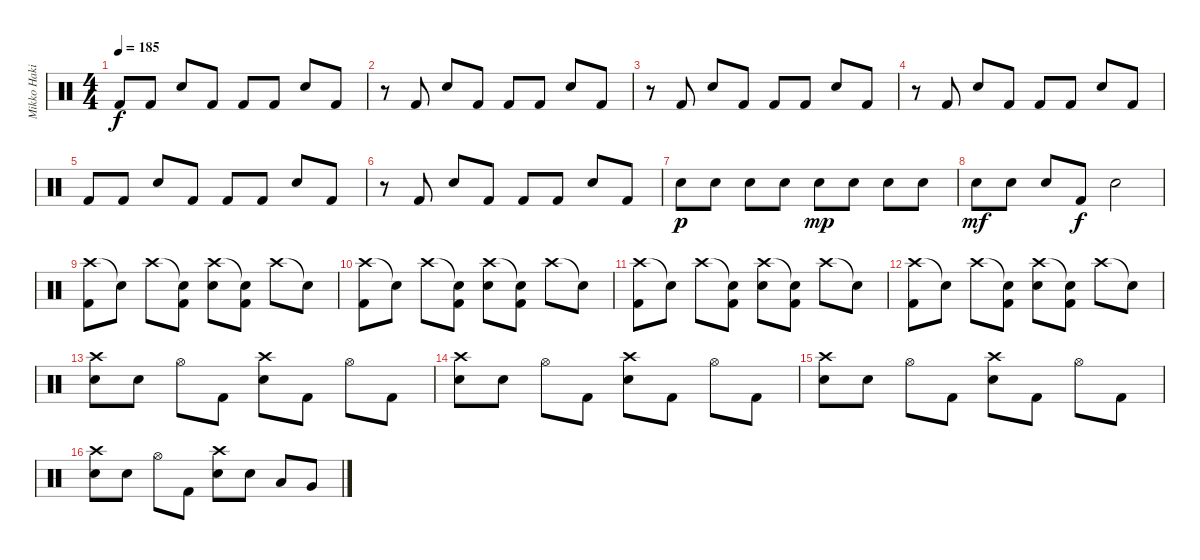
\track ("Mikko Hakila" "Mikko Haki") {instrument percussion}
\staff {score}
\articulation defaults
\ts (4 4)
\tempo 185
\clef neutral
\ks c "Kick (hit) 2".8{dy f} "Kick (hit) 2".8 "Snare (hit) 2".8 "Kick (hit) 2".8 "Kick (hit) 2".8 "Kick (hit) 2".8 "Snare (hit) 2".8 "Kick (hit) 2".8
|
r.8 "Kick (hit) 2".8 "Snare (hit) 2".8 "Kick (hit) 2".8 "Kick (hit) 2".8 "Kick (hit) 2".8 "Snare (hit) 2".8 "Kick (hit) 2".8 |
r.8 "Kick (hit) 2".8 "Snare (hit) 2".8 "Kick (hit) 2".8 "Kick (hit) 2".8 "Kick (hit) 2".8 "Snare (hit) 2".8 "Kick (hit) 2".8 |
r.8 "Kick (hit) 2".8 "Snare (hit) 2".8 "Kick (hit) 2".8 "Kick (hit) 2".8 "Kick (hit) 2".8 "Snare (hit) 2".8 "Kick (hit) 2".8 |
"Kick (hit) 2".8 "Kick (hit) 2".8 "Snare (hit) 2".8 "Kick (hit) 2".8 "Kick (hit) 2".8 "Kick (hit) 2".8 "Snare (hit) 2".8 "Kick (hit) 2".8 |
r.8 "Kick (hit) 2".8 "Snare (hit) 2".8 "Kick (hit) 2".8 "Kick (hit) 2".8 "Kick (hit) 2".8 "Snare (hit) 2".8 "Kick (hit) 2".8 |
"Snare (hit) 2".8{dy p} "Snare (hit) 2".8 "Snare (hit) 2".8 "Snare (hit) 2".8 "Snare (hit) 2".8{dy mp} "Snare (hit) 2".8 "Snare (hit) 2".8 "Snare (hit) 2".8 |
"Snare (hit) 2".8{dy mf} "Snare (hit) 2".8 "Snare (hit) 2".8 "Kick (hit) 2".8{dy f} "Snare (hit) 2".2 |
("Crash high (hit)" "Kick (hit) 2").8 "Snare (hit)"{t}.8 "Crash high (hit)".8 ("Snare (hit)"{t} "Kick (hit) 2").8 ("Crash high (hit)" "Snare (hit) 2").8 ("Snare (hit)"{t} "Kick (hit) 2").8 "Crash high (hit)".8 "Snare (hit)"{t}.8 |
("Crash high (hit)" "Kick (hit) 2").8 "Snare (hit)"{t}.8 "Crash high (hit)".8 ("Snare (hit)"{t} "Kick (hit) 2").8 ("Crash high (hit)" "Snare (hit) 2").8 ("Snare (hit)"{t} "Kick (hit) 2").8 "Crash high (hit)".8 "Snare (hit)"{t}.8 |
("Crash high (hit)" "Kick (hit) 2").8 "Snare (hit)"{t}.8 "Crash high (hit)".8 ("Snare (hit)"{t} "Kick (hit) 2").8 ("Crash high (hit)" "Snare (hit) 2").8 ("Snare (hit)"{t} "Kick (hit) 2").8 "Crash high (hit)".8 "Snare (hit)"{t}.8 |
("Crash high (hit)" "Kick (hit) 2").8 "Snare (hit)"{t}.8 "Crash high (hit)".8 ("Snare (hit)"{t} "Kick (hit) 2").8 ("Crash high (hit)" "Snare (hit) 2").8 ("Snare (hit)"{t} "Kick (hit) 2").8 "Crash high (hit)".8 "Snare (hit)"{t}.8 |
("Crash high (hit)" "Snare (hit) 2").8 "Snare (hit) 2".8 "Hi-Hat (open)".8 "Kick (hit) 2".8 ("Crash high (hit)" "Snare (hit) 2").8 "Kick (hit) 2".8 "Hi-Hat (open)".8 "Kick (hit) 2".8 |
("Crash high (hit)" "Snare (hit) 2").8 "Snare (hit) 2".8 "Hi-Hat (open)".8 "Kick (hit) 2".8 ("Crash high (hit)" "Snare (hit) 2").8 "Kick (hit) 2".8 "Hi-Hat (open)".8 "Kick (hit) 2".8 |
("Crash high (hit)" "Snare (hit) 2").8 "Snare (hit) 2".8 "Hi-Hat (open)".8 "Kick (hit) 2".8 ("Crash high (hit)" "Snare (hit) 2").8 "Kick (hit) 2".8 "Hi-Hat (open)".8 "Kick (hit) 2".8 |
("Crash high (hit)" "Snare (hit) 2").8 "Snare (hit) 2".8 "Hi-Hat (open)".8 "Kick (hit) 2".8 ("Crash high (hit)" "Snare (hit) 2").8 "Snare (hit) 2".8 "Low Tom (hit)".8 "Very Low Tom (hit)".8
